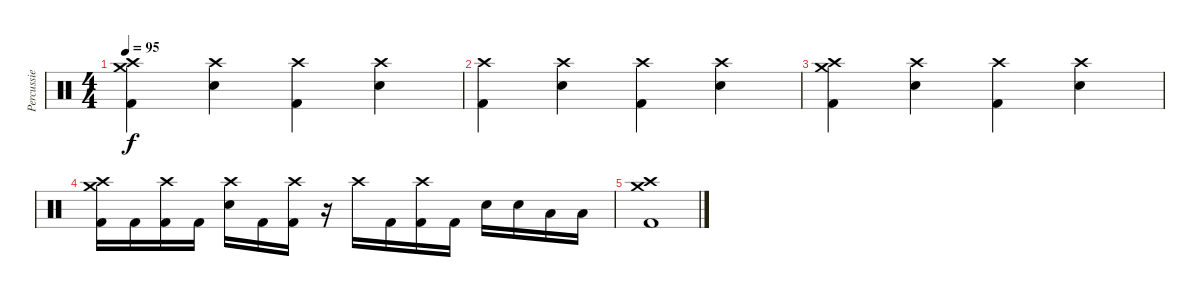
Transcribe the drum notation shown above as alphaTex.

\track ("Percussie" "Percussie") {instrument percussion}
\staff {score}
\articulation defaults
\ts (4 4)
\tempo 95
\clef neutral
\ks c
("Crash medium (hit)" "Crash high (hit)" "Kick (hit) 2").4{dy f} ("Crash high (hit)" "Electric Snare (hit)").4 ("Crash high (hit)" "Kick (hit) 2").4 ("Crash high (hit)" "Electric Snare (hit)").4 |
("Crash high (hit)" "Kick (hit) 2").4 ("Crash high (hit)" "Electric Snare (hit)").4 ("Crash high (hit)" "Kick (hit) 2").4 ("Crash high (hit)" "Electric Snare (hit)").4 |
("Crash medium (hit)" "Crash high (hit)" "Kick (hit) 2").4 ("Crash high (hit)" "Electric Snare (hit)").4 ("Crash high (hit)" "Kick (hit) 2").4 ("Crash high (hit)" "Electric Snare (hit)").4 |
("Crash medium (hit)" "Crash high (hit)" "Kick (hit) 2").16 "Kick (hit) 2".16 ("Crash high (hit)" "Kick (hit) 2").16 "Kick (hit) 2".16 ("Crash high (hit)" "Electric Snare (hit)").16 "Kick (hit) 2".16 ("Crash high (hit)" "Kick (hit) 2").16 r.16 "Crash high (hit)".16 "Kick (hit) 2".16 ("Crash high (hit)" "Kick (hit) 2").16 "Kick (hit) 2".16 "Electric Snare (hit)".16 "Electric Snare (hit)".16 "Low Tom (hit)".16 "Low Tom (hit)".16 |
("Crash medium (hit)" "Crash high (hit)" "Kick (hit) 2").1
